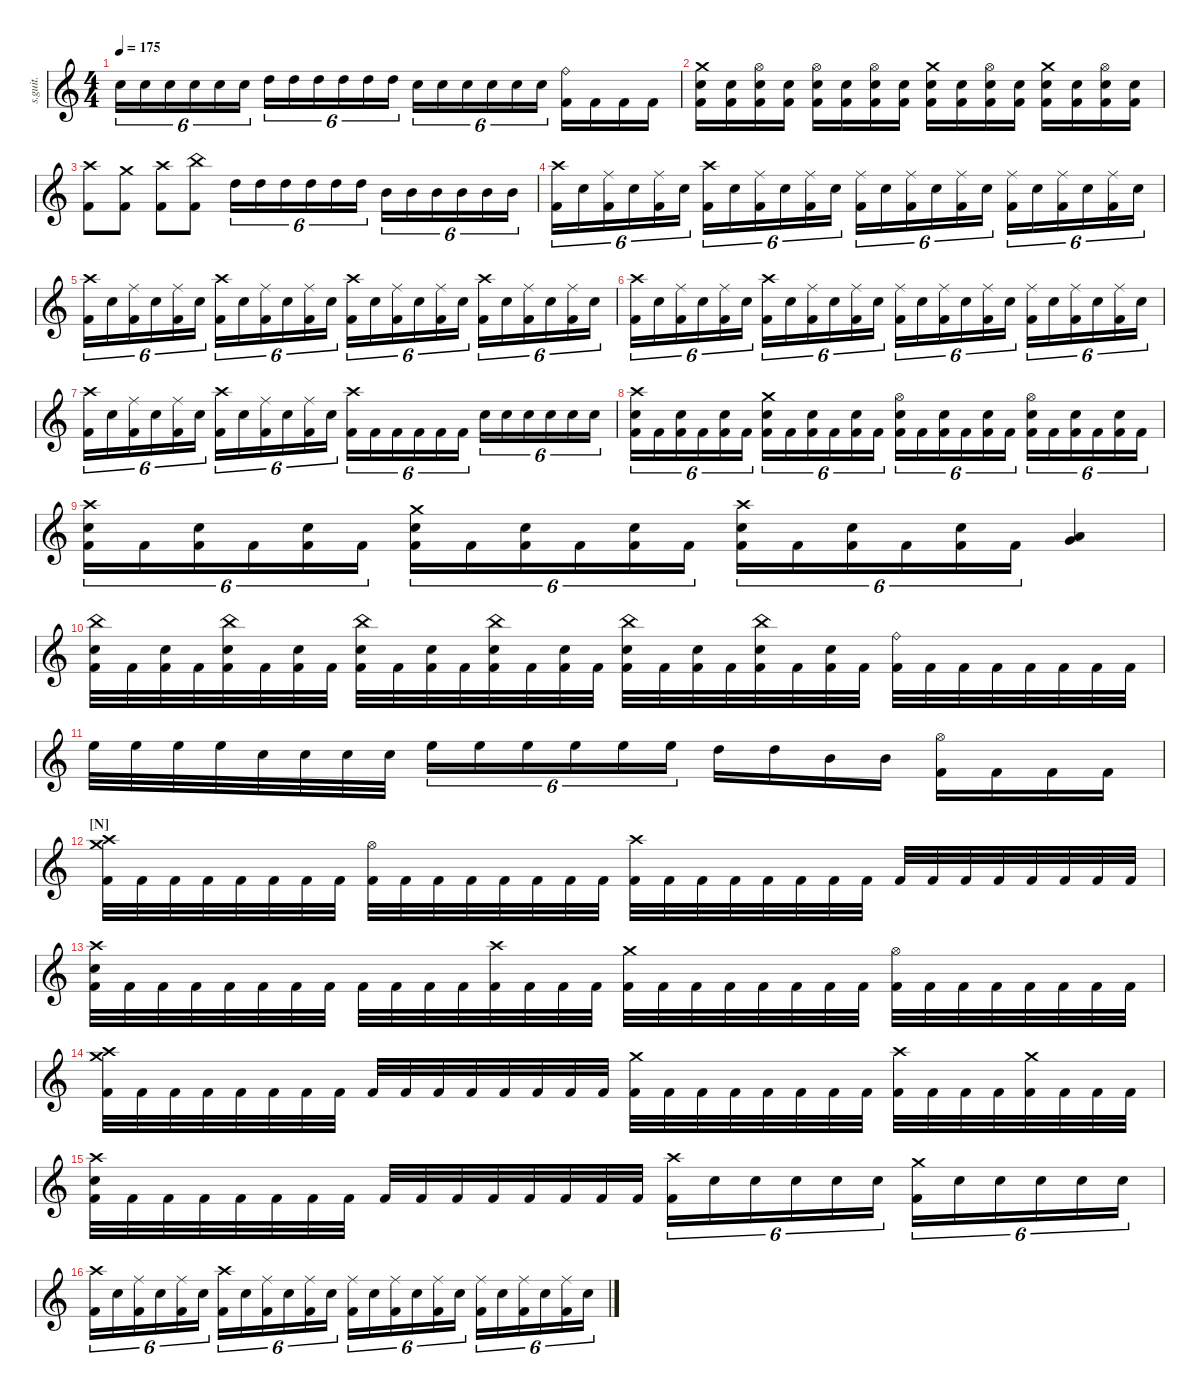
\defaultSystemsLayout 4
\hideDynamics
\bracketExtendMode nobrackets
\track ("" "s.guit.") {instrument percussion}
\staff {score}
\articulation defaults
\ts (4 4)
\tempo 175
\clef g2
\ks c "Snare (hit) 2".16{tu (6 4) dy ff} "Snare (hit) 2".16{tu (6 4)} "Snare (hit) 2".16{tu (6 4)} "Snare (hit) 2".16{tu (6 4)} "Snare (hit) 2".16{tu (6 4)} "Snare (hit) 2".16{tu (6 4)} "High Tom (hit)".16{tu (6 4)} "High Tom (hit)".16{tu (6 4)} "High Tom (hit)".16{tu (6 4)} "High Tom (hit)".16{tu (6 4)} "High Tom (hit)".16{tu (6 4)} "High Tom (hit)".16{tu (6 4)} "Snare (hit) 2".16{tu (6 4)} "Snare (hit) 2".16{tu (6 4)} "Snare (hit) 2".16{tu (6 4)} "Snare (hit) 2".16{tu (6 4)} "Snare (hit) 2".16{tu (6 4)} "Snare (hit) 2".16{tu (6 4)}
("Ride (bell)" "Kick (hit) 2").16 "Kick (hit) 2".16 "Kick (hit) 2".16 "Kick (hit) 2".16 |
("Crash medium (hit)" "Snare (hit) 2" "Kick (hit) 2").16 ("Snare (hit) 2" "Kick (hit) 2").16 ("Hi-Hat (open)" "Snare (hit) 2" "Kick (hit) 2").16 ("Snare (hit) 2" "Kick (hit) 2").16 ("Hi-Hat (open)" "Snare (hit) 2" "Kick (hit) 2").16 ("Snare (hit) 2" "Kick (hit) 2").16 ("Hi-Hat (open)" "Snare (hit) 2" "Kick (hit) 2").16 ("Snare (hit) 2" "Kick (hit) 2").16 ("Crash medium (hit)" "Snare (hit) 2" "Kick (hit) 2").16 ("Snare (hit) 2" "Kick (hit) 2").16 ("Hi-Hat (open)" "Snare (hit) 2" "Kick (hit) 2").16 ("Snare (hit) 2" "Kick (hit) 2").16 ("Crash medium (hit)" "Snare (hit) 2" "Kick (hit) 2").16 ("Snare (hit) 2" "Kick (hit) 2").16 ("Hi-Hat (open)" "Snare (hit) 2" "Kick (hit) 2").16 ("Snare (hit) 2" "Kick (hit) 2").16 |
("Crash high (hit)" "Kick (hit) 2").8 ("Crash medium (hit)" "Kick (hit) 2").8 ("Crash high (hit)" "Kick (hit) 2").8 ("China (hit)" "Kick (hit) 2").8 "High Tom (hit)".16{tu (6 4)} "High Tom (hit)".16{tu (6 4)} "High Tom (hit)".16{tu (6 4)} "High Tom (hit)".16{tu (6 4)} "High Tom (hit)".16{tu (6 4)} "High Tom (hit)".16{tu (6 4)} "Mid Tom (hit)".16{tu (6 4)} "Mid Tom (hit)".16{tu (6 4)} "Mid Tom (hit)".16{tu (6 4)} "Mid Tom (hit)".16{tu (6 4)} "Mid Tom (hit)".16{tu (6 4)} "Mid Tom (hit)".16{tu (6 4)} |
("Crash high (hit)" "Kick (hit) 2").16{tu (6 4)} "Snare (hit) 2".16{tu (6 4)} ("Ride (middle)" "Kick (hit) 2").16{tu (6 4)} "Snare (hit) 2".16{tu (6 4)} ("Ride (middle)" "Kick (hit) 2").16{tu (6 4)} "Snare (hit) 2".16{tu (6 4)} ("Crash high (hit)" "Kick (hit) 2").16{tu (6 4)} "Snare (hit) 2".16{tu (6 4)} ("Ride (middle)" "Kick (hit) 2").16{tu (6 4)} "Snare (hit) 2".16{tu (6 4)} ("Ride (middle)" "Kick (hit) 2").16{tu (6 4)} "Snare (hit) 2".16{tu (6 4)} ("Ride (middle)" "Kick (hit) 2").16{tu (6 4)} "Snare (hit) 2".16{tu (6 4)} ("Ride (middle)" "Kick (hit) 2").16{tu (6 4)} "Snare (hit) 2".16{tu (6 4)} ("Ride (middle)" "Kick (hit) 2").16{tu (6 4)} "Snare (hit) 2".16{tu (6 4)} ("Ride (middle)" "Kick (hit) 2").16{tu (6 4)} "Snare (hit) 2".16{tu (6 4)} ("Ride (middle)" "Kick (hit) 2").16{tu (6 4)} "Snare (hit) 2".16{tu (6 4)} ("Ride (middle)" "Kick (hit) 2").16{tu (6 4)} "Snare (hit) 2".16{tu (6 4)} |
("Crash high (hit)" "Kick (hit) 2").16{tu (6 4)} "Snare (hit) 2".16{tu (6 4)} ("Ride (middle)" "Kick (hit) 2").16{tu (6 4)} "Snare (hit) 2".16{tu (6 4)} ("Ride (middle)" "Kick (hit) 2").16{tu (6 4)} "Snare (hit) 2".16{tu (6 4)} ("Crash high (hit)" "Kick (hit) 2").16{tu (6 4)} "Snare (hit) 2".16{tu (6 4)} ("Ride (middle)" "Kick (hit) 2").16{tu (6 4)} "Snare (hit) 2".16{tu (6 4)} ("Ride (middle)" "Kick (hit) 2").16{tu (6 4)} "Snare (hit) 2".16{tu (6 4)} ("Crash high (hit)" "Kick (hit) 2").16{tu (6 4)} "Snare (hit) 2".16{tu (6 4)} ("Ride (middle)" "Kick (hit) 2").16{tu (6 4)} "Snare (hit) 2".16{tu (6 4)} ("Ride (middle)" "Kick (hit) 2").16{tu (6 4)} "Snare (hit) 2".16{tu (6 4)} ("Crash high (hit)" "Kick (hit) 2").16{tu (6 4)} "Snare (hit) 2".16{tu (6 4)} ("Ride (middle)" "Kick (hit) 2").16{tu (6 4)} "Snare (hit) 2".16{tu (6 4)} ("Ride (middle)" "Kick (hit) 2").16{tu (6 4)} "Snare (hit) 2".16{tu (6 4)} |
("Crash high (hit)" "Kick (hit) 2").16{tu (6 4)} "Snare (hit) 2".16{tu (6 4)} ("Ride (middle)" "Kick (hit) 2").16{tu (6 4)} "Snare (hit) 2".16{tu (6 4)} ("Ride (middle)" "Kick (hit) 2").16{tu (6 4)} "Snare (hit) 2".16{tu (6 4)} ("Crash high (hit)" "Kick (hit) 2").16{tu (6 4)} "Snare (hit) 2".16{tu (6 4)} ("Ride (middle)" "Kick (hit) 2").16{tu (6 4)} "Snare (hit) 2".16{tu (6 4)} ("Ride (middle)" "Kick (hit) 2").16{tu (6 4)} "Snare (hit) 2".16{tu (6 4)} ("Ride (middle)" "Kick (hit) 2").16{tu (6 4)} "Snare (hit) 2".16{tu (6 4)} ("Ride (middle)" "Kick (hit) 2").16{tu (6 4)} "Snare (hit) 2".16{tu (6 4)} ("Ride (middle)" "Kick (hit) 2").16{tu (6 4)} "Snare (hit) 2".16{tu (6 4)} ("Ride (middle)" "Kick (hit) 2").16{tu (6 4)} "Snare (hit) 2".16{tu (6 4)} ("Ride (middle)" "Kick (hit) 2").16{tu (6 4)} "Snare (hit) 2".16{tu (6 4)} ("Ride (middle)" "Kick (hit) 2").16{tu (6 4)} "Snare (hit) 2".16{tu (6 4)} |
("Crash high (hit)" "Kick (hit) 2").16{tu (6 4)} "Snare (hit) 2".16{tu (6 4)} ("Ride (middle)" "Kick (hit) 2").16{tu (6 4)} "Snare (hit) 2".16{tu (6 4)} ("Ride (middle)" "Kick (hit) 2").16{tu (6 4)} "Snare (hit) 2".16{tu (6 4)} ("Crash high (hit)" "Kick (hit) 2").16{tu (6 4)} "Snare (hit) 2".16{tu (6 4)} ("Ride (middle)" "Kick (hit) 2").16{tu (6 4)} "Snare (hit) 2".16{tu (6 4)} ("Ride (middle)" "Kick (hit) 2").16{tu (6 4)} "Snare (hit) 2".16{tu (6 4)} ("Crash high (hit)" "Kick (hit) 2").16{tu (6 4)} "Kick (hit) 2".16{tu (6 4)} "Kick (hit) 2".16{tu (6 4)} "Kick (hit) 2".16{tu (6 4)} "Kick (hit) 2".16{tu (6 4)} "Kick (hit) 2".16{tu (6 4)} "Snare (hit) 2".16{tu (6 4)} "Snare (hit) 2".16{tu (6 4)} "Snare (hit) 2".16{tu (6 4)} "Snare (hit) 2".16{tu (6 4)} "Snare (hit) 2".16{tu (6 4)} "Snare (hit) 2".16{tu (6 4)} |
("Crash high (hit)" "Snare (hit) 2" "Kick (hit) 2").16{tu (6 4)} "Kick (hit) 2".16{tu (6 4)} ("Snare (hit) 2" "Kick (hit) 2").16{tu (6 4)} "Kick (hit) 2".16{tu (6 4)} ("Snare (hit) 2" "Kick (hit) 2").16{tu (6 4)} "Kick (hit) 2".16{tu (6 4)} ("Crash medium (hit)" "Snare (hit) 2" "Kick (hit) 2").16{tu (6 4)} "Kick (hit) 2".16{tu (6 4)} ("Snare (hit) 2" "Kick (hit) 2").16{tu (6 4)} "Kick (hit) 2".16{tu (6 4)} ("Snare (hit) 2" "Kick (hit) 2").16{tu (6 4)} "Kick (hit) 2".16{tu (6 4)} ("Hi-Hat (open)" "Snare (hit) 2" "Kick (hit) 2").16{tu (6 4)} "Kick (hit) 2".16{tu (6 4)} ("Snare (hit) 2" "Kick (hit) 2").16{tu (6 4)} "Kick (hit) 2".16{tu (6 4)} ("Snare (hit) 2" "Kick (hit) 2").16{tu (6 4)} "Kick (hit) 2".16{tu (6 4)} ("Hi-Hat (open)" "Snare (hit) 2" "Kick (hit) 2").16{tu (6 4)} "Kick (hit) 2".16{tu (6 4)} ("Snare (hit) 2" "Kick (hit) 2").16{tu (6 4)} "Kick (hit) 2".16{tu (6 4)} ("Snare (hit) 2" "Kick (hit) 2").16{tu (6 4)} "Kick (hit) 2".16{tu (6 4)} |
("Crash high (hit)" "Snare (hit) 2" "Kick (hit) 2").16{tu (6 4)} "Kick (hit) 2".16{tu (6 4)} ("Snare (hit) 2" "Kick (hit) 2").16{tu (6 4)} "Kick (hit) 2".16{tu (6 4)} ("Snare (hit) 2" "Kick (hit) 2").16{tu (6 4)} "Kick (hit) 2".16{tu (6 4)} ("Crash medium (hit)" "Snare (hit) 2" "Kick (hit) 2").16{tu (6 4)} "Kick (hit) 2".16{tu (6 4)} ("Snare (hit) 2" "Kick (hit) 2").16{tu (6 4)} "Kick (hit) 2".16{tu (6 4)} ("Snare (hit) 2" "Kick (hit) 2").16{tu (6 4)} "Kick (hit) 2".16{tu (6 4)} ("Crash high (hit)" "Snare (hit) 2" "Kick (hit) 2").16{tu (6 4)} "Kick (hit) 2".16{tu (6 4)} ("Snare (hit) 2" "Kick (hit) 2").16{tu (6 4)} "Kick (hit) 2".16{tu (6 4)} ("Snare (hit) 2" "Kick (hit) 2").16{tu (6 4)} "Kick (hit) 2".16{tu (6 4)} ("Low Tom (hit)" "Very Low Tom (hit)").4 |
("China (hit)" "Snare (hit) 2" "Kick (hit) 2").32 "Kick (hit) 2".32 ("Snare (hit) 2" "Kick (hit) 2").32 "Kick (hit) 2".32 ("China (hit)" "Snare (hit) 2" "Kick (hit) 2").32 "Kick (hit) 2".32 ("Snare (hit) 2" "Kick (hit) 2").32 "Kick (hit) 2".32 ("China (hit)" "Snare (hit) 2" "Kick (hit) 2").32 "Kick (hit) 2".32 ("Snare (hit) 2" "Kick (hit) 2").32 "Kick (hit) 2".32 ("China (hit)" "Snare (hit) 2" "Kick (hit) 2").32 "Kick (hit) 2".32 ("Snare (hit) 2" "Kick (hit) 2").32 "Kick (hit) 2".32 ("China (hit)" "Snare (hit) 2" "Kick (hit) 2").32 "Kick (hit) 2".32 ("Snare (hit) 2" "Kick (hit) 2").32 "Kick (hit) 2".32 ("China (hit)" "Snare (hit) 2" "Kick (hit) 2").32 "Kick (hit) 2".32 ("Snare (hit) 2" "Kick (hit) 2").32 "Kick (hit) 2".32 ("Ride (bell)" "Kick (hit) 2").32 "Kick (hit) 2".32 "Kick (hit) 2".32 "Kick (hit) 2".32 "Kick (hit) 2".32 "Kick (hit) 2".32 "Kick (hit) 2".32 "Kick (hit) 2".32 |
"High Floor Tom (hit)".32 "High Floor Tom (hit)".32 "High Floor Tom (hit)".32 "High Floor Tom (hit)".32 "Snare (hit) 2".32 "Snare (hit) 2".32 "Snare (hit) 2".32 "Snare (hit) 2".32 "High Floor Tom (hit)".16{tu (6 4)} "High Floor Tom (hit)".16{tu (6 4)} "High Floor Tom (hit)".16{tu (6 4)} "High Floor Tom (hit)".16{tu (6 4)} "High Floor Tom (hit)".16{tu (6 4)} "High Floor Tom (hit)".16{tu (6 4)} "High Tom (hit)".16 "High Tom (hit)".16 "Mid Tom (hit)".16 "Mid Tom (hit)".16 ("Hi-Hat (open)" "Kick (hit) 2").16 "Kick (hit) 2".16 "Kick (hit) 2".16 "Kick (hit) 2".16 |
\section ("N" "")
("Crash medium (hit)" "Crash high (hit)" "Kick (hit) 2").32 "Kick (hit) 2".32 "Kick (hit) 2".32 "Kick (hit) 2".32 "Kick (hit) 2".32 "Kick (hit) 2".32 "Kick (hit) 2".32 "Kick (hit) 2".32 ("Hi-Hat (open)" "Kick (hit) 2").32 "Kick (hit) 2".32 "Kick (hit) 2".32 "Kick (hit) 2".32 "Kick (hit) 2".32 "Kick (hit) 2".32 "Kick (hit) 2".32 "Kick (hit) 2".32 ("Crash high (hit)" "Kick (hit) 2").32 "Kick (hit) 2".32 "Kick (hit) 2".32 "Kick (hit) 2".32 "Kick (hit) 2".32 "Kick (hit) 2".32 "Kick (hit) 2".32 "Kick (hit) 2".32 "Kick (hit) 2".32 "Kick (hit) 2".32 "Kick (hit) 2".32 "Kick (hit) 2".32 "Kick (hit) 2".32 "Kick (hit) 2".32 "Kick (hit) 2".32 "Kick (hit) 2".32 |
("Crash high (hit)" "Snare (hit) 2" "Kick (hit) 2").32 "Kick (hit) 2".32 "Kick (hit) 2".32 "Kick (hit) 2".32 "Kick (hit) 2".32 "Kick (hit) 2".32 "Kick (hit) 2".32 "Kick (hit) 2".32 "Kick (hit) 2".32 "Kick (hit) 2".32 "Kick (hit) 2".32 "Kick (hit) 2".32 ("Crash high (hit)" "Kick (hit) 2").32 "Kick (hit) 2".32 "Kick (hit) 2".32 "Kick (hit) 2".32 ("Crash medium (hit)" "Kick (hit) 2").32 "Kick (hit) 2".32 "Kick (hit) 2".32 "Kick (hit) 2".32 "Kick (hit) 2".32 "Kick (hit) 2".32 "Kick (hit) 2".32 "Kick (hit) 2".32 ("Hi-Hat (open)" "Kick (hit) 2").32 "Kick (hit) 2".32 "Kick (hit) 2".32 "Kick (hit) 2".32 "Kick (hit) 2".32 "Kick (hit) 2".32 "Kick (hit) 2".32 "Kick (hit) 2".32 |
("Crash medium (hit)" "Crash high (hit)" "Kick (hit) 2").32 "Kick (hit) 2".32 "Kick (hit) 2".32 "Kick (hit) 2".32 "Kick (hit) 2".32 "Kick (hit) 2".32 "Kick (hit) 2".32 "Kick (hit) 2".32 "Kick (hit) 2".32 "Kick (hit) 2".32 "Kick (hit) 2".32 "Kick (hit) 2".32 "Kick (hit) 2".32 "Kick (hit) 2".32 "Kick (hit) 2".32 "Kick (hit) 2".32 ("Crash medium (hit)" "Kick (hit) 2").32 "Kick (hit) 2".32 "Kick (hit) 2".32 "Kick (hit) 2".32 "Kick (hit) 2".32 "Kick (hit) 2".32 "Kick (hit) 2".32 "Kick (hit) 2".32 ("Crash high (hit)" "Kick (hit) 2").32 "Kick (hit) 2".32 "Kick (hit) 2".32 "Kick (hit) 2".32 ("Crash medium (hit)" "Kick (hit) 2").32 "Kick (hit) 2".32 "Kick (hit) 2".32 "Kick (hit) 2".32 |
("Crash high (hit)" "Snare (hit) 2" "Kick (hit) 2").32 "Kick (hit) 2".32 "Kick (hit) 2".32 "Kick (hit) 2".32 "Kick (hit) 2".32 "Kick (hit) 2".32 "Kick (hit) 2".32 "Kick (hit) 2".32 "Kick (hit) 2".32 "Kick (hit) 2".32 "Kick (hit) 2".32 "Kick (hit) 2".32 "Kick (hit) 2".32 "Kick (hit) 2".32 "Kick (hit) 2".32 "Kick (hit) 2".32 ("Crash high (hit)" "Kick (hit) 2").16{tu (6 4)} "Snare (hit) 2".16{tu (6 4)} "Snare (hit) 2".16{tu (6 4)} "Snare (hit) 2".16{tu (6 4)} "Snare (hit) 2".16{tu (6 4)} "Snare (hit) 2".16{tu (6 4)} ("Crash medium (hit)" "Kick (hit) 2").16{tu (6 4)} "Snare (hit) 2".16{tu (6 4)} "Snare (hit) 2".16{tu (6 4)} "Snare (hit) 2".16{tu (6 4)} "Snare (hit) 2".16{tu (6 4)} "Snare (hit) 2".16{tu (6 4)} |
("Crash high (hit)" "Kick (hit) 2").16{tu (6 4)} "Snare (hit) 2".16{tu (6 4)} ("Ride (middle)" "Kick (hit) 2").16{tu (6 4)} "Snare (hit) 2".16{tu (6 4)} ("Ride (middle)" "Kick (hit) 2").16{tu (6 4)} "Snare (hit) 2".16{tu (6 4)} ("Crash high (hit)" "Kick (hit) 2").16{tu (6 4)} "Snare (hit) 2".16{tu (6 4)} ("Ride (middle)" "Kick (hit) 2").16{tu (6 4)} "Snare (hit) 2".16{tu (6 4)} ("Ride (middle)" "Kick (hit) 2").16{tu (6 4)} "Snare (hit) 2".16{tu (6 4)} ("Ride (middle)" "Kick (hit) 2").16{tu (6 4)} "Snare (hit) 2".16{tu (6 4)} ("Ride (middle)" "Kick (hit) 2").16{tu (6 4)} "Snare (hit) 2".16{tu (6 4)} ("Ride (middle)" "Kick (hit) 2").16{tu (6 4)} "Snare (hit) 2".16{tu (6 4)} ("Ride (middle)" "Kick (hit) 2").16{tu (6 4)} "Snare (hit) 2".16{tu (6 4)} ("Ride (middle)" "Kick (hit) 2").16{tu (6 4)} "Snare (hit) 2".16{tu (6 4)} ("Ride (middle)" "Kick (hit) 2").16{tu (6 4)} "Snare (hit) 2".16{tu (6 4)}
